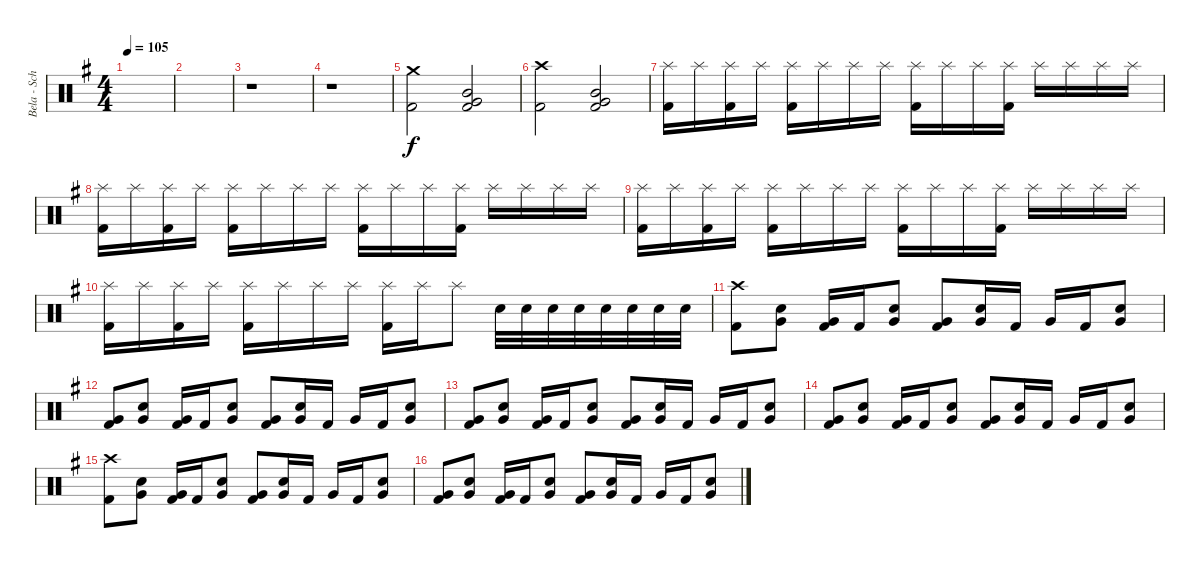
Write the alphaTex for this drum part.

\track ("Bela - Schlagzeug" "Bela - Sch") {instrument percussion}
\staff {score}
\articulation defaults
\ts (4 4)
\tempo 105
\clef neutral
\ks g
|
|
r.1 |
r.1 |
("Crash medium (hit)" "Kick (hit) 2").2 ("Mid Tom (hit)" "Very Low Tom (hit)" "Kick (hit) 2").2 |
("Crash high (hit)" "Kick (hit) 2").2 ("Mid Tom (hit)" "Very Low Tom (hit)" "Kick (hit) 2").2 |
("Splash (hit)" "Kick (hit) 2").16 "Splash (hit)".16 ("Splash (hit)" "Kick (hit) 2").16 "Splash (hit)".16 ("Splash (hit)" "Kick (hit) 2").16 "Splash (hit)".16 "Splash (hit)".16 "Splash (hit)".16 ("Splash (hit)" "Kick (hit) 2").16 "Splash (hit)".16 "Splash (hit)".16 ("Splash (hit)" "Kick (hit) 2").16 "Splash (hit)".16 "Splash (hit)".16 "Splash (hit)".16 "Splash (hit)".16 |
("Splash (hit)" "Kick (hit) 2").16 "Splash (hit)".16 ("Splash (hit)" "Kick (hit) 2").16 "Splash (hit)".16 ("Splash (hit)" "Kick (hit) 2").16 "Splash (hit)".16 "Splash (hit)".16 "Splash (hit)".16 ("Splash (hit)" "Kick (hit) 2").16 "Splash (hit)".16 "Splash (hit)".16 ("Splash (hit)" "Kick (hit) 2").16 "Splash (hit)".16 "Splash (hit)".16 "Splash (hit)".16 "Splash (hit)".16 |
("Splash (hit)" "Kick (hit) 2").16 "Splash (hit)".16 ("Splash (hit)" "Kick (hit) 2").16 "Splash (hit)".16 ("Splash (hit)" "Kick (hit) 2").16 "Splash (hit)".16 "Splash (hit)".16 "Splash (hit)".16 ("Splash (hit)" "Kick (hit) 2").16 "Splash (hit)".16 "Splash (hit)".16 ("Splash (hit)" "Kick (hit) 2").16 "Splash (hit)".16 "Splash (hit)".16 "Splash (hit)".16 "Splash (hit)".16 |
("Splash (hit)" "Kick (hit) 2").16 "Splash (hit)".16 ("Splash (hit)" "Kick (hit) 2").16 "Splash (hit)".16 ("Splash (hit)" "Kick (hit) 2").16 "Splash (hit)".16 "Splash (hit)".16 "Splash (hit)".16 ("Splash (hit)" "Kick (hit) 2").16 "Splash (hit)".16 "Splash (hit)".8 "Snare (hit) 2".32 "Snare (hit) 2".32 "Snare (hit) 2".32 "Snare (hit) 2".32 "Snare (hit) 2".32 "Snare (hit) 2".32 "Snare (hit) 2".32 "Snare (hit) 2".32 |
("Crash high (hit)" "Kick (hit) 2").8 ("Very Low Tom (hit)" "Snare (hit) 2").8 ("Very Low Tom (hit)" "Kick (hit) 2").16 "Kick (hit) 2".16 ("Very Low Tom (hit)" "Snare (hit) 2").8 ("Very Low Tom (hit)" "Kick (hit) 2").8 ("Very Low Tom (hit)" "Snare (hit) 2").16 "Kick (hit) 2".16 "Very Low Tom (hit)".16 "Kick (hit) 2".16 ("Very Low Tom (hit)" "Snare (hit) 2").8 |
("Very Low Tom (hit)" "Kick (hit) 2").8 ("Very Low Tom (hit)" "Snare (hit) 2").8 ("Very Low Tom (hit)" "Kick (hit) 2").16 "Kick (hit) 2".16 ("Very Low Tom (hit)" "Snare (hit) 2").8 ("Very Low Tom (hit)" "Kick (hit) 2").8 ("Very Low Tom (hit)" "Snare (hit) 2").16 "Kick (hit) 2".16 "Very Low Tom (hit)".16 "Kick (hit) 2".16 ("Very Low Tom (hit)" "Snare (hit) 2").8 |
("Very Low Tom (hit)" "Kick (hit) 2").8 ("Very Low Tom (hit)" "Snare (hit) 2").8 ("Very Low Tom (hit)" "Kick (hit) 2").16 "Kick (hit) 2".16 ("Very Low Tom (hit)" "Snare (hit) 2").8 ("Very Low Tom (hit)" "Kick (hit) 2").8 ("Very Low Tom (hit)" "Snare (hit) 2").16 "Kick (hit) 2".16 "Very Low Tom (hit)".16 "Kick (hit) 2".16 ("Very Low Tom (hit)" "Snare (hit) 2").8 |
("Very Low Tom (hit)" "Kick (hit) 2").8 ("Very Low Tom (hit)" "Snare (hit) 2").8 ("Very Low Tom (hit)" "Kick (hit) 2").16 "Kick (hit) 2".16 ("Very Low Tom (hit)" "Snare (hit) 2").8 ("Very Low Tom (hit)" "Kick (hit) 2").8 ("Very Low Tom (hit)" "Snare (hit) 2").16 "Kick (hit) 2".16 "Very Low Tom (hit)".16 "Kick (hit) 2".16 ("Very Low Tom (hit)" "Snare (hit) 2").8 |
("Crash high (hit)" "Kick (hit) 2").8 ("Very Low Tom (hit)" "Snare (hit) 2").8 ("Very Low Tom (hit)" "Kick (hit) 2").16 "Kick (hit) 2".16 ("Very Low Tom (hit)" "Snare (hit) 2").8 ("Very Low Tom (hit)" "Kick (hit) 2").8 ("Very Low Tom (hit)" "Snare (hit) 2").16 "Kick (hit) 2".16 "Very Low Tom (hit)".16 "Kick (hit) 2".16 ("Very Low Tom (hit)" "Snare (hit) 2").8 |
("Very Low Tom (hit)" "Kick (hit) 2").8 ("Very Low Tom (hit)" "Snare (hit) 2").8 ("Very Low Tom (hit)" "Kick (hit) 2").16 "Kick (hit) 2".16 ("Very Low Tom (hit)" "Snare (hit) 2").8 ("Very Low Tom (hit)" "Kick (hit) 2").8 ("Very Low Tom (hit)" "Snare (hit) 2").16 "Kick (hit) 2".16 "Very Low Tom (hit)".16 "Kick (hit) 2".16 ("Very Low Tom (hit)" "Snare (hit) 2").8
